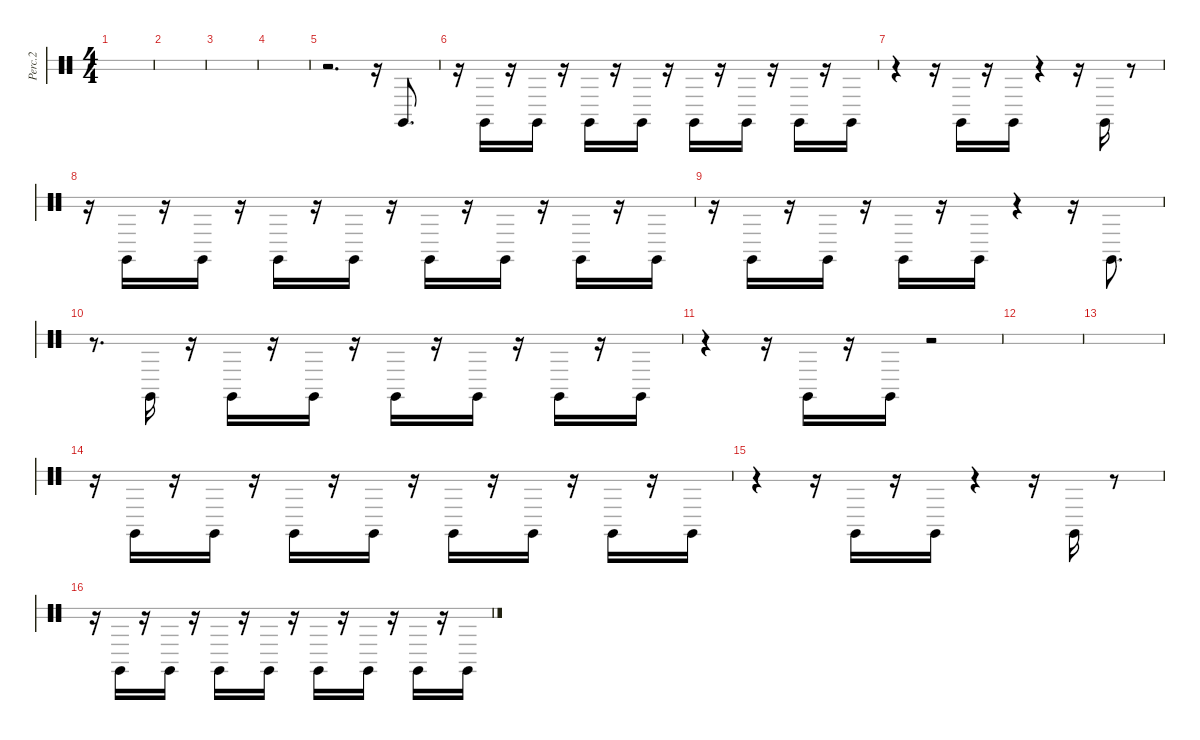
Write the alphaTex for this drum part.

\defaultSystemsLayout 4
\hideDynamics
\bracketExtendMode groupsimilarinstruments
\otherSystemsTrackNameOrientation horizontal
\track ("Percussions 2" "Perc.2") {instrument percussion}
\staff {score 2}
\articulation defaults
\ts (4 4)
\tempo (120 hide)
\clef neutral
\ks c
|
|
|
|
r.2{d beam Up} r.16{beam Up} "Conga high (hit)".8{d beam Down} |
r.16{beam Down} "Conga high (hit)".16{beam Down} r.16{beam Down} "Conga high (hit)".16{beam Down} r.16{beam Down} "Conga high (hit)".16{beam Down} r.16{beam Down} "Conga high (hit)".16{beam Down} r.16{beam Down} "Conga high (hit)".16{beam Down} r.16{beam Down} "Conga high (hit)".16{beam Down} r.16{beam Down} "Conga high (hit)".16{beam Down} r.16{beam Down} "Conga high (hit)".16{beam Down} |
r.4{beam Down} r.16{beam Down} "Conga high (hit)".16{beam Down} r.16{beam Down} "Conga high (hit)".16{beam Down} r.4{beam Down} r.16{beam Down} "Conga high (hit)".16{beam Down} r.8{beam Down} |
r.16{beam Down} "Conga high (hit)".16{beam Down} r.16{beam Down} "Conga high (hit)".16{beam Down} r.16{beam Down} "Conga high (hit)".16{beam Down} r.16{beam Down} "Conga high (hit)".16{beam Down} r.16{beam Down} "Conga high (hit)".16{beam Down} r.16{beam Down} "Conga high (hit)".16{beam Down} r.16{beam Down} "Conga high (hit)".16{beam Down} r.16{beam Down} "Conga high (hit)".16{beam Down} |
r.16{beam Down} "Conga high (hit)".16{beam Down} r.16{beam Down} "Conga high (hit)".16{beam Down} r.16{beam Down} "Conga high (hit)".16{beam Down} r.16{beam Down} "Conga high (hit)".16{beam Down} r.4{beam Down} r.16{beam Down} "Conga high (hit)".8{d beam Down} |
r.8{d beam Down} "Conga high (hit)".16{beam Down} r.16{beam Down} "Conga high (hit)".16{beam Down} r.16{beam Down} "Conga high (hit)".16{beam Down} r.16{beam Down} "Conga high (hit)".16{beam Down} r.16{beam Down} "Conga high (hit)".16{beam Down} r.16{beam Down} "Conga high (hit)".16{beam Down} r.16{beam Down} "Conga high (hit)".16{beam Down} |
r.4{beam Down} r.16{beam Down} "Conga high (hit)".16{beam Down} r.16{beam Down} "Conga high (hit)".16{beam Down} r.2{beam Up} |
|
|
r.16{beam Down} "Conga high (hit)".16{beam Down} r.16{beam Down} "Conga high (hit)".16{beam Down} r.16{beam Down} "Conga high (hit)".16{beam Down} r.16{beam Down} "Conga high (hit)".16{beam Down} r.16{beam Down} "Conga high (hit)".16{beam Down} r.16{beam Down} "Conga high (hit)".16{beam Down} r.16{beam Down} "Conga high (hit)".16{beam Down} r.16{beam Down} "Conga high (hit)".16{beam Down} |
r.4{beam Down} r.16{beam Down} "Conga high (hit)".16{beam Down} r.16{beam Down} "Conga high (hit)".16{beam Down} r.4{beam Down} r.16{beam Down} "Conga high (hit)".16{beam Down} r.8{beam Down} |
r.16{beam Down} "Conga high (hit)".16{beam Down} r.16{beam Down} "Conga high (hit)".16{beam Down} r.16{beam Down} "Conga high (hit)".16{beam Down} r.16{beam Down} "Conga high (hit)".16{beam Down} r.16{beam Down} "Conga high (hit)".16{beam Down} r.16{beam Down} "Conga high (hit)".16{beam Down} r.16{beam Down} "Conga high (hit)".16{beam Down} r.16{beam Down} "Conga high (hit)".16{beam Down}
